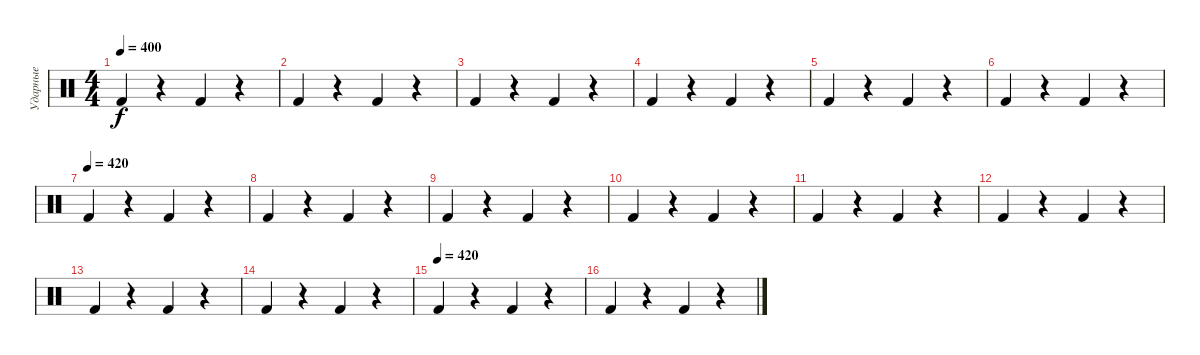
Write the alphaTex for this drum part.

\track ("Ударные" "Ударные") {instrument percussion}
\staff {score}
\articulation defaults
\ts (4 4)
\tempo 400
\clef neutral
\ks c "Kick (hit) 2".4{dy f}
r.4 "Kick (hit) 2".4 r.4 |
"Kick (hit) 2".4 r.4 "Kick (hit) 2".4 r.4 |
"Kick (hit) 2".4 r.4 "Kick (hit) 2".4 r.4 |
"Kick (hit) 2".4 r.4 "Kick (hit) 2".4 r.4 |
"Kick (hit) 2".4 r.4 "Kick (hit) 2".4 r.4 |
"Kick (hit) 2".4 r.4 "Kick (hit) 2".4 r.4 |
\tempo (420)
"Kick (hit) 2".4 r.4 "Kick (hit) 2".4 r.4 |
"Kick (hit) 2".4 r.4 "Kick (hit) 2".4 r.4 |
"Kick (hit) 2".4 r.4 "Kick (hit) 2".4 r.4 |
"Kick (hit) 2".4 r.4 "Kick (hit) 2".4 r.4 |
"Kick (hit) 2".4 r.4 "Kick (hit) 2".4 r.4 |
"Kick (hit) 2".4 r.4 "Kick (hit) 2".4 r.4 |
"Kick (hit) 2".4 r.4 "Kick (hit) 2".4 r.4 |
"Kick (hit) 2".4 r.4 "Kick (hit) 2".4 r.4 |
\tempo (420)
"Kick (hit) 2".4 r.4 "Kick (hit) 2".4 r.4 |
"Kick (hit) 2".4 r.4 "Kick (hit) 2".4 r.4
